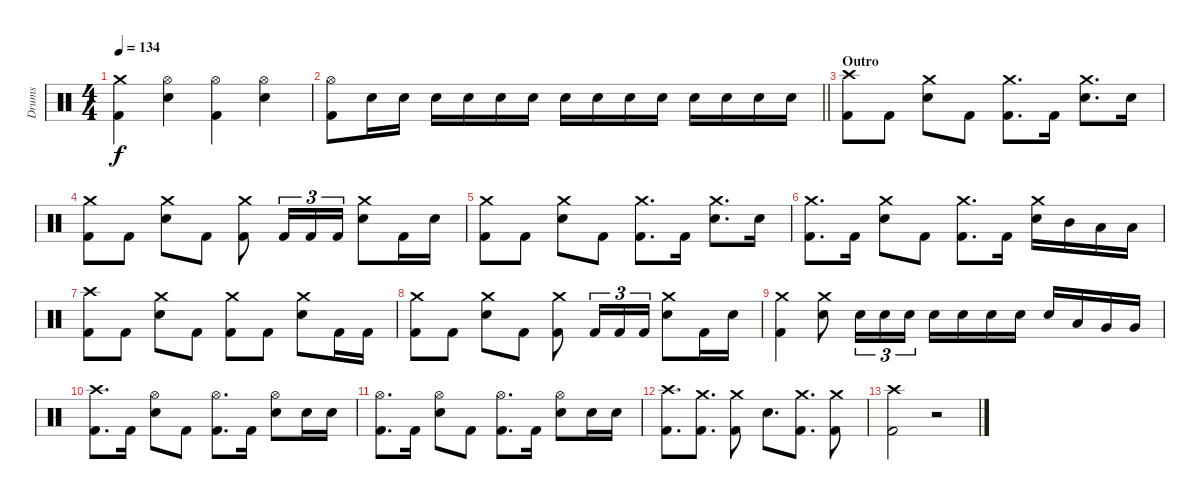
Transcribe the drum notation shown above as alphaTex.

\track ("Drums" "Drums") {instrument percussion}
\staff {score}
\articulation defaults
\ts (4 4)
\tempo 134
\clef neutral
\ks c
("Crash medium (hit)" "Kick (hit) 2").4{dy f} ("Hi-Hat (open)" "Snare (hit) 2").4 ("Hi-Hat (open)" "Kick (hit) 2").4 ("Hi-Hat (open)" "Snare (hit) 2").4 |
\barLineRight lightlight
("Hi-Hat (open)" "Kick (hit) 2").8 "Snare (hit) 2".16 "Snare (hit) 2".16 "Snare (hit) 2".16 "Snare (hit) 2".16 "Snare (hit) 2".16 "Snare (hit) 2".16 "Snare (hit) 2".16 "Snare (hit) 2".16 "Snare (hit) 2".16 "Snare (hit) 2".16 "Snare (hit) 2".16 "Snare (hit) 2".16 "Snare (hit) 2".16 "Snare (hit) 2".16 |
\section ("" "Outro")
("Crash high (hit)" "Kick (hit) 2").8 "Kick (hit) 2".8 ("Crash medium (hit)" "Snare (hit) 2").8 "Kick (hit) 2".8 ("Crash medium (hit)" "Kick (hit) 2").8{d} "Kick (hit) 2".16 ("Crash medium (hit)" "Snare (hit) 2").8{d} "Snare (hit) 2".16 |
("Crash medium (hit)" "Kick (hit) 2").8 "Kick (hit) 2".8 ("Crash medium (hit)" "Snare (hit) 2").8 "Kick (hit) 2".8 ("Crash medium (hit)" "Kick (hit) 2").8 "Kick (hit) 2".16{tu (3 2)} "Kick (hit) 2".16{tu (3 2)} "Kick (hit) 2".16{tu (3 2)} ("Crash medium (hit)" "Snare (hit) 2").8 "Kick (hit) 2".16 "Snare (hit) 2".16 |
("Crash medium (hit)" "Kick (hit) 2").8 "Kick (hit) 2".8 ("Crash medium (hit)" "Snare (hit) 2").8 "Kick (hit) 2".8 ("Crash medium (hit)" "Kick (hit) 2").8{d} "Kick (hit) 2".16 ("Crash medium (hit)" "Snare (hit) 2").8{d} "Snare (hit) 2".16 |
("Crash medium (hit)" "Kick (hit) 2").8{d} "Kick (hit) 2".16 ("Crash medium (hit)" "Snare (hit) 2").8 "Kick (hit) 2".8 ("Crash medium (hit)" "Kick (hit) 2").8{d} "Kick (hit) 2".16 ("Crash medium (hit)" "Snare (hit) 2").16 "Mid Tom (hit)".16 "Low Tom (hit)".16 "Low Tom (hit)".16 |
("Crash high (hit)" "Kick (hit) 2").8 "Kick (hit) 2".8 ("Crash medium (hit)" "Snare (hit) 2").8 "Kick (hit) 2".8 ("Crash medium (hit)" "Kick (hit) 2").8 "Kick (hit) 2".8 ("Crash medium (hit)" "Snare (hit) 2").8 "Kick (hit) 2".16 "Kick (hit) 2".16 |
("Crash medium (hit)" "Kick (hit) 2").8 "Kick (hit) 2".8 ("Crash medium (hit)" "Snare (hit) 2").8 "Kick (hit) 2".8 ("Crash medium (hit)" "Kick (hit) 2").8 "Kick (hit) 2".16{tu (3 2)} "Kick (hit) 2".16{tu (3 2)} "Kick (hit) 2".16{tu (3 2)} ("Crash medium (hit)" "Snare (hit) 2").8 "Kick (hit) 2".16 "Snare (hit) 2".16 |
("Crash medium (hit)" "Kick (hit) 2").4 ("Crash medium (hit)" "Snare (hit) 2").8 "Snare (hit) 2".16{tu (3 2)} "Snare (hit) 2".16{tu (3 2)} "Snare (hit) 2".16{tu (3 2)} "Snare (hit) 2".16 "Snare (hit) 2".16 "Snare (hit) 2".16 "Snare (hit) 2".16 "Snare (hit) 2".16 "Low Tom (hit)".16 "Very Low Tom (hit)".16 "Very Low Tom (hit)".16 |
("Crash high (hit)" "Kick (hit) 2").8{d} "Kick (hit) 2".16 ("Hi-Hat (open)" "Snare (hit) 2").8 "Kick (hit) 2".8 ("Hi-Hat (open)" "Kick (hit) 2").8{d} "Kick (hit) 2".16 ("Hi-Hat (open)" "Snare (hit) 2").8 "Snare (hit) 2".16 "Snare (hit) 2".16 |
("Hi-Hat (open)" "Kick (hit) 2").8{d} "Kick (hit) 2".16 ("Hi-Hat (open)" "Snare (hit) 2").8 "Kick (hit) 2".8 ("Hi-Hat (open)" "Kick (hit) 2").8{d} "Kick (hit) 2".16 ("Hi-Hat (open)" "Snare (hit) 2").8 "Snare (hit) 2".16 "Snare (hit) 2".16 |
("Crash high (hit)" "Kick (hit) 2").8{d} ("Crash medium (hit)" "Kick (hit) 2").8{d} ("Crash medium (hit)" "Kick (hit) 2").8 "Snare (hit) 2".8{d} ("Crash medium (hit)" "Kick (hit) 2").8{d} ("Crash medium (hit)" "Kick (hit) 2").8 |
("Crash high (hit)" "Kick (hit) 2").2 r.2
